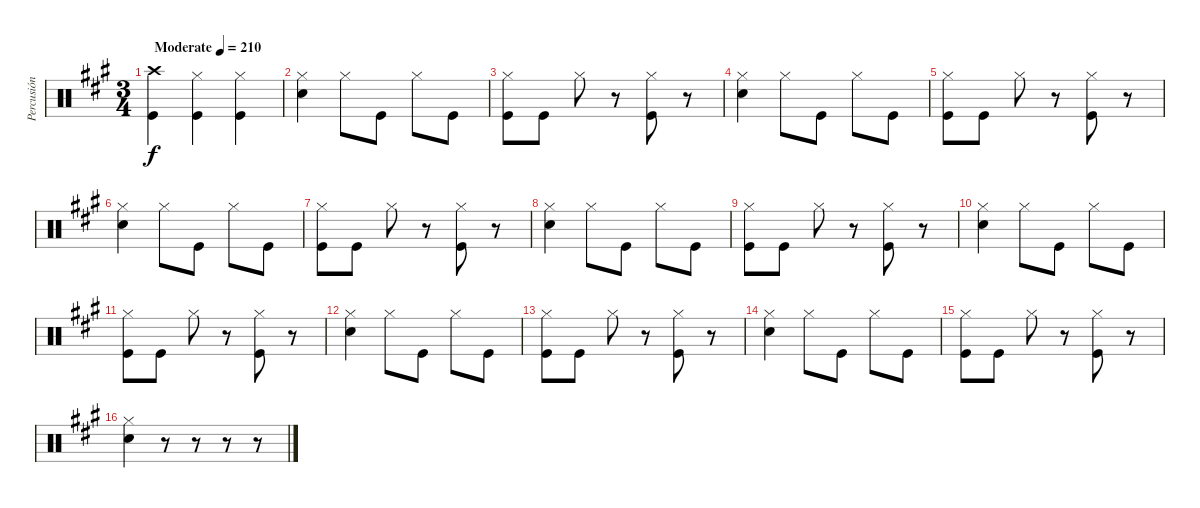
\track ("Percusión" "Percusión") {instrument percussion}
\staff {score}
\articulation defaults
\ts (3 4)
\tempo (210 "Moderate")
\clef neutral
\ks a
("Crash high (hit)" "Kick (hit)").4{dy f} ("Hi-Hat (closed)" "Kick (hit)").4 ("Hi-Hat (closed)" "Kick (hit)").4 |
("Hi-Hat (closed)" "Electric Snare (hit)").4 "Hi-Hat (closed)".8 "Kick (hit)".8 "Hi-Hat (closed)".8 "Kick (hit)".8 |
("Hi-Hat (closed)" "Kick (hit)").8 "Kick (hit)".8 "Hi-Hat (closed)".8 r.8 ("Hi-Hat (closed)" "Kick (hit)").8 r.8 |
("Hi-Hat (closed)" "Electric Snare (hit)").4 "Hi-Hat (closed)".8 "Kick (hit)".8 "Hi-Hat (closed)".8 "Kick (hit)".8 |
("Hi-Hat (closed)" "Kick (hit)").8 "Kick (hit)".8 "Hi-Hat (closed)".8 r.8 ("Hi-Hat (closed)" "Kick (hit)").8 r.8 |
("Hi-Hat (closed)" "Electric Snare (hit)").4 "Hi-Hat (closed)".8 "Kick (hit)".8 "Hi-Hat (closed)".8 "Kick (hit)".8 |
("Hi-Hat (closed)" "Kick (hit)").8 "Kick (hit)".8 "Hi-Hat (closed)".8 r.8 ("Hi-Hat (closed)" "Kick (hit)").8 r.8 |
("Hi-Hat (closed)" "Electric Snare (hit)").4 "Hi-Hat (closed)".8 "Kick (hit)".8 "Hi-Hat (closed)".8 "Kick (hit)".8 |
("Hi-Hat (closed)" "Kick (hit)").8 "Kick (hit)".8 "Hi-Hat (closed)".8 r.8 ("Hi-Hat (closed)" "Kick (hit)").8 r.8 |
("Hi-Hat (closed)" "Electric Snare (hit)").4 "Hi-Hat (closed)".8 "Kick (hit)".8 "Hi-Hat (closed)".8 "Kick (hit)".8 |
("Hi-Hat (closed)" "Kick (hit)").8 "Kick (hit)".8 "Hi-Hat (closed)".8 r.8 ("Hi-Hat (closed)" "Kick (hit)").8 r.8 |
("Hi-Hat (closed)" "Electric Snare (hit)").4 "Hi-Hat (closed)".8 "Kick (hit)".8 "Hi-Hat (closed)".8 "Kick (hit)".8 |
("Hi-Hat (closed)" "Kick (hit)").8 "Kick (hit)".8 "Hi-Hat (closed)".8 r.8 ("Hi-Hat (closed)" "Kick (hit)").8 r.8 |
("Hi-Hat (closed)" "Electric Snare (hit)").4 "Hi-Hat (closed)".8 "Kick (hit)".8 "Hi-Hat (closed)".8 "Kick (hit)".8 |
("Hi-Hat (closed)" "Kick (hit)").8 "Kick (hit)".8 "Hi-Hat (closed)".8 r.8 ("Hi-Hat (closed)" "Kick (hit)").8 r.8 |
("Hi-Hat (closed)" "Electric Snare (hit)").4 r.8 r.8 r.8 r.8
